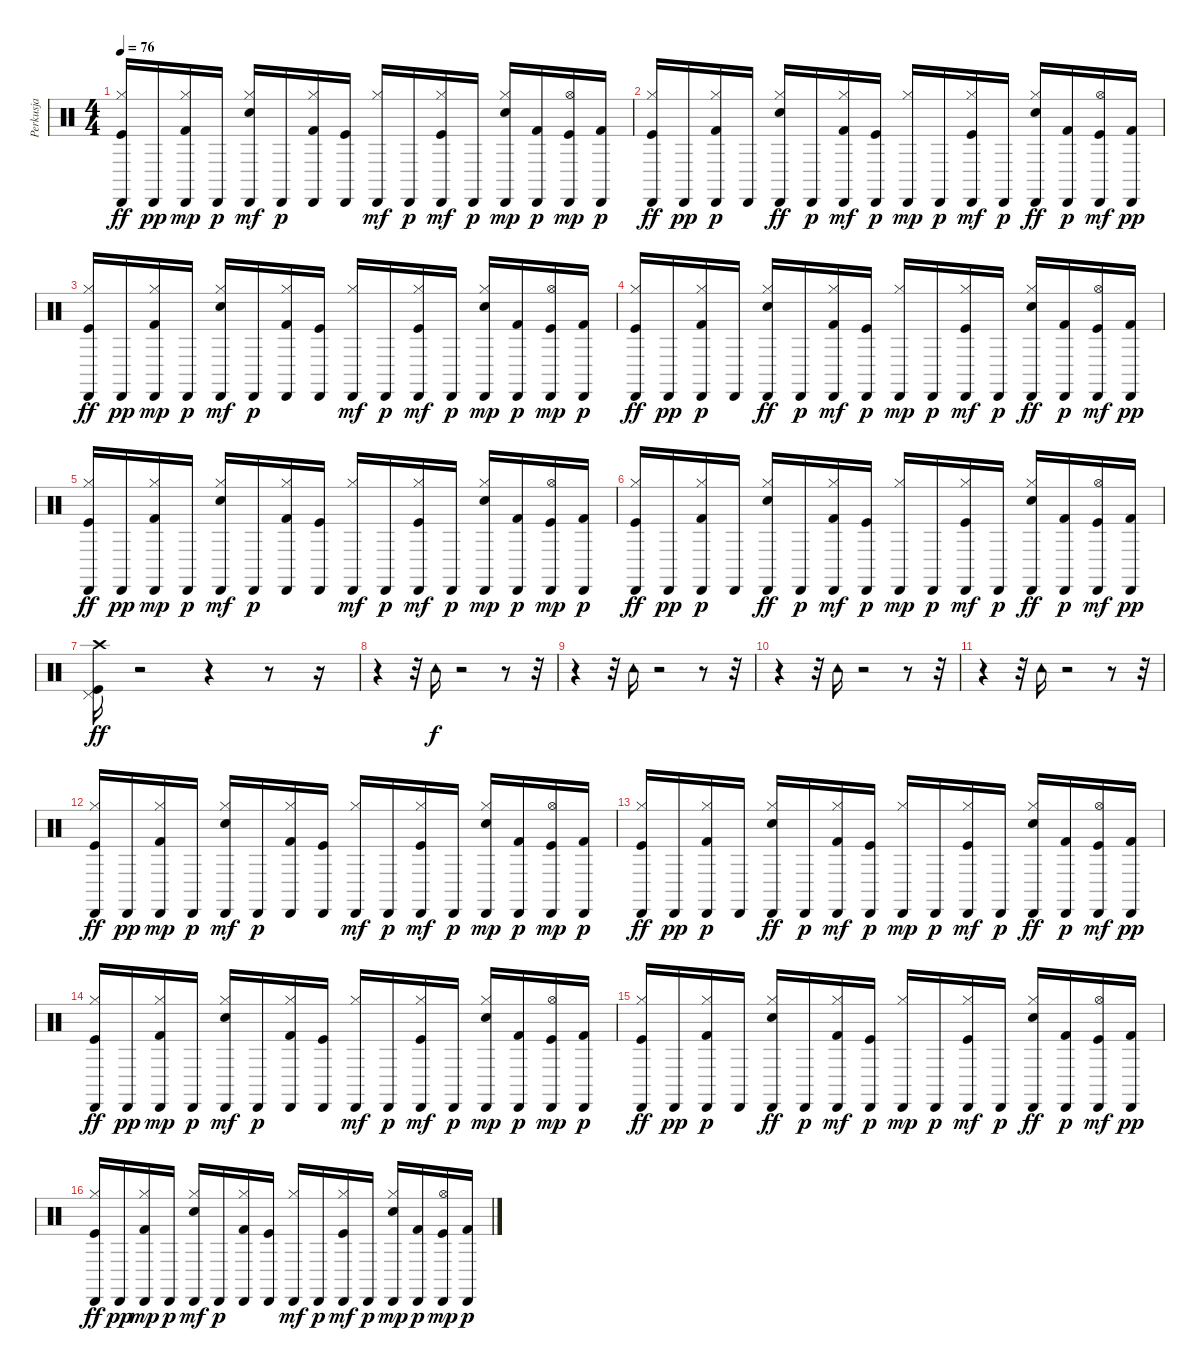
\track ("Perkusja" "Perkusja") {instrument percussion}
\staff {score}
\articulation defaults
\ts (4 4)
\tempo 76
\clef neutral
\ks c
("Cabasa (hit)" "Hi-Hat (closed)" "Kick (hit)").16{dy ff} "Cabasa (hit)".16{dy pp} ("Cabasa (hit)" "Kick (hit) 2" "Hi-Hat (closed)").16{dy mp} "Cabasa (hit)".16{dy p} ("Cabasa (hit)" "Snare (hit) 2" "Hi-Hat (closed)").16{dy mf} "Cabasa (hit)".16{dy p} ("Cabasa (hit)" "Hi-Hat (closed)" "Kick (hit) 2").16 ("Cabasa (hit)" "Kick (hit)").16 ("Cabasa (hit)" "Hi-Hat (closed)").16{dy mf} "Cabasa (hit)".16{dy p} ("Cabasa (hit)" "Hi-Hat (closed)" "Kick (hit)").16{dy mf} "Cabasa (hit)".16{dy p} ("Cabasa (hit)" "Hi-Hat (closed)" "Snare (hit) 2").16{dy mp} ("Cabasa (hit)" "Kick (hit) 2").16{dy p} ("Kick (hit)" "Hi-Hat (open)" "Cabasa (hit)").16{dy mp} ("Cabasa (hit)" "Kick (hit) 2").16{dy p} |
("Cabasa (hit)" "Hi-Hat (closed)" "Kick (hit)").16{dy ff} "Cabasa (hit)".16{dy pp} ("Cabasa (hit)" "Hi-Hat (closed)" "Kick (hit) 2").16{dy p} "Cabasa (hit)".16 ("Cabasa (hit)" "Hi-Hat (closed)" "Snare (hit) 2").16{dy ff} "Cabasa (hit)".16{dy p} ("Cabasa (hit)" "Kick (hit) 2" "Hi-Hat (closed)").16{dy mf} ("Cabasa (hit)" "Kick (hit)").16{dy p} ("Cabasa (hit)" "Hi-Hat (closed)").16{dy mp} "Cabasa (hit)".16{dy p} ("Cabasa (hit)" "Hi-Hat (closed)" "Kick (hit)").16{dy mf} "Cabasa (hit)".16{dy p} ("Cabasa (hit)" "Hi-Hat (closed)" "Snare (hit) 2").16{dy ff} ("Cabasa (hit)" "Kick (hit) 2").16{dy p} ("Cabasa (hit)" "Kick (hit)" "Hi-Hat (open)").16{dy mf} ("Cabasa (hit)" "Kick (hit) 2").16{dy pp} |
("Cabasa (hit)" "Hi-Hat (closed)" "Kick (hit)").16{dy ff} "Cabasa (hit)".16{dy pp} ("Cabasa (hit)" "Kick (hit) 2" "Hi-Hat (closed)").16{dy mp} "Cabasa (hit)".16{dy p} ("Cabasa (hit)" "Snare (hit) 2" "Hi-Hat (closed)").16{dy mf} "Cabasa (hit)".16{dy p} ("Cabasa (hit)" "Hi-Hat (closed)" "Kick (hit) 2").16 ("Cabasa (hit)" "Kick (hit)").16 ("Cabasa (hit)" "Hi-Hat (closed)").16{dy mf} "Cabasa (hit)".16{dy p} ("Cabasa (hit)" "Hi-Hat (closed)" "Kick (hit)").16{dy mf} "Cabasa (hit)".16{dy p} ("Cabasa (hit)" "Hi-Hat (closed)" "Snare (hit) 2").16{dy mp} ("Cabasa (hit)" "Kick (hit) 2").16{dy p} ("Kick (hit)" "Hi-Hat (open)" "Cabasa (hit)").16{dy mp} ("Cabasa (hit)" "Kick (hit) 2").16{dy p} |
("Cabasa (hit)" "Hi-Hat (closed)" "Kick (hit)").16{dy ff} "Cabasa (hit)".16{dy pp} ("Cabasa (hit)" "Hi-Hat (closed)" "Kick (hit) 2").16{dy p} "Cabasa (hit)".16 ("Cabasa (hit)" "Hi-Hat (closed)" "Snare (hit) 2").16{dy ff} "Cabasa (hit)".16{dy p} ("Cabasa (hit)" "Kick (hit) 2" "Hi-Hat (closed)").16{dy mf} ("Cabasa (hit)" "Kick (hit)").16{dy p} ("Cabasa (hit)" "Hi-Hat (closed)").16{dy mp} "Cabasa (hit)".16{dy p} ("Cabasa (hit)" "Hi-Hat (closed)" "Kick (hit)").16{dy mf} "Cabasa (hit)".16{dy p} ("Cabasa (hit)" "Hi-Hat (closed)" "Snare (hit) 2").16{dy ff} ("Cabasa (hit)" "Kick (hit) 2").16{dy p} ("Cabasa (hit)" "Kick (hit)" "Hi-Hat (open)").16{dy mf} ("Cabasa (hit)" "Kick (hit) 2").16{dy pp} |
("Cabasa (hit)" "Hi-Hat (closed)" "Kick (hit)").16{dy ff} "Cabasa (hit)".16{dy pp} ("Cabasa (hit)" "Kick (hit) 2" "Hi-Hat (closed)").16{dy mp} "Cabasa (hit)".16{dy p} ("Cabasa (hit)" "Snare (hit) 2" "Hi-Hat (closed)").16{dy mf} "Cabasa (hit)".16{dy p} ("Cabasa (hit)" "Hi-Hat (closed)" "Kick (hit) 2").16 ("Cabasa (hit)" "Kick (hit)").16 ("Cabasa (hit)" "Hi-Hat (closed)").16{dy mf} "Cabasa (hit)".16{dy p} ("Cabasa (hit)" "Hi-Hat (closed)" "Kick (hit)").16{dy mf} "Cabasa (hit)".16{dy p} ("Cabasa (hit)" "Hi-Hat (closed)" "Snare (hit) 2").16{dy mp} ("Cabasa (hit)" "Kick (hit) 2").16{dy p} ("Kick (hit)" "Hi-Hat (open)" "Cabasa (hit)").16{dy mp} ("Cabasa (hit)" "Kick (hit) 2").16{dy p} |
("Cabasa (hit)" "Hi-Hat (closed)" "Kick (hit)").16{dy ff} "Cabasa (hit)".16{dy pp} ("Cabasa (hit)" "Hi-Hat (closed)" "Kick (hit) 2").16{dy p} "Cabasa (hit)".16 ("Cabasa (hit)" "Hi-Hat (closed)" "Snare (hit) 2").16{dy ff} "Cabasa (hit)".16{dy p} ("Cabasa (hit)" "Kick (hit) 2" "Hi-Hat (closed)").16{dy mf} ("Cabasa (hit)" "Kick (hit)").16{dy p} ("Cabasa (hit)" "Hi-Hat (closed)").16{dy mp} "Cabasa (hit)".16{dy p} ("Cabasa (hit)" "Hi-Hat (closed)" "Kick (hit)").16{dy mf} "Cabasa (hit)".16{dy p} ("Cabasa (hit)" "Hi-Hat (closed)" "Snare (hit) 2").16{dy ff} ("Cabasa (hit)" "Kick (hit) 2").16{dy p} ("Cabasa (hit)" "Kick (hit)" "Hi-Hat (open)").16{dy mf} ("Cabasa (hit)" "Kick (hit) 2").16{dy pp} |
("Kick (hit)" "Pedal Hi-Hat (hit)" "Crash high (hit)").16{dy ff} r.2 r.4 r.8 r.16 |
r.4 r.32 "Tambourine (hit)".16{dy f} r.2 r.8 r.32 |
r.4 r.32 "Tambourine (hit)".16 r.2 r.8 r.32 |
r.4 r.32 "Tambourine (hit)".16 r.2 r.8 r.32 |
r.4 r.32 "Tambourine (hit)".16 r.2 r.8 r.32 |
("Cabasa (hit)" "Hi-Hat (closed)" "Kick (hit)").16{dy ff} "Cabasa (hit)".16{dy pp} ("Cabasa (hit)" "Kick (hit) 2" "Hi-Hat (closed)").16{dy mp} "Cabasa (hit)".16{dy p} ("Cabasa (hit)" "Snare (hit) 2" "Hi-Hat (closed)").16{dy mf} "Cabasa (hit)".16{dy p} ("Cabasa (hit)" "Hi-Hat (closed)" "Kick (hit) 2").16 ("Cabasa (hit)" "Kick (hit)").16 ("Cabasa (hit)" "Hi-Hat (closed)").16{dy mf} "Cabasa (hit)".16{dy p} ("Cabasa (hit)" "Hi-Hat (closed)" "Kick (hit)").16{dy mf} "Cabasa (hit)".16{dy p} ("Cabasa (hit)" "Hi-Hat (closed)" "Snare (hit) 2").16{dy mp} ("Cabasa (hit)" "Kick (hit) 2").16{dy p} ("Kick (hit)" "Hi-Hat (open)" "Cabasa (hit)").16{dy mp} ("Cabasa (hit)" "Kick (hit) 2").16{dy p} |
("Cabasa (hit)" "Hi-Hat (closed)" "Kick (hit)").16{dy ff} "Cabasa (hit)".16{dy pp} ("Cabasa (hit)" "Hi-Hat (closed)" "Kick (hit) 2").16{dy p} "Cabasa (hit)".16 ("Cabasa (hit)" "Hi-Hat (closed)" "Snare (hit) 2").16{dy ff} "Cabasa (hit)".16{dy p} ("Cabasa (hit)" "Kick (hit) 2" "Hi-Hat (closed)").16{dy mf} ("Cabasa (hit)" "Kick (hit)").16{dy p} ("Cabasa (hit)" "Hi-Hat (closed)").16{dy mp} "Cabasa (hit)".16{dy p} ("Cabasa (hit)" "Hi-Hat (closed)" "Kick (hit)").16{dy mf} "Cabasa (hit)".16{dy p} ("Cabasa (hit)" "Hi-Hat (closed)" "Snare (hit) 2").16{dy ff} ("Cabasa (hit)" "Kick (hit) 2").16{dy p} ("Cabasa (hit)" "Kick (hit)" "Hi-Hat (open)").16{dy mf} ("Cabasa (hit)" "Kick (hit) 2").16{dy pp} |
("Cabasa (hit)" "Hi-Hat (closed)" "Kick (hit)").16{dy ff} "Cabasa (hit)".16{dy pp} ("Cabasa (hit)" "Kick (hit) 2" "Hi-Hat (closed)").16{dy mp} "Cabasa (hit)".16{dy p} ("Cabasa (hit)" "Snare (hit) 2" "Hi-Hat (closed)").16{dy mf} "Cabasa (hit)".16{dy p} ("Cabasa (hit)" "Hi-Hat (closed)" "Kick (hit) 2").16 ("Cabasa (hit)" "Kick (hit)").16 ("Cabasa (hit)" "Hi-Hat (closed)").16{dy mf} "Cabasa (hit)".16{dy p} ("Cabasa (hit)" "Hi-Hat (closed)" "Kick (hit)").16{dy mf} "Cabasa (hit)".16{dy p} ("Cabasa (hit)" "Hi-Hat (closed)" "Snare (hit) 2").16{dy mp} ("Cabasa (hit)" "Kick (hit) 2").16{dy p} ("Kick (hit)" "Hi-Hat (open)" "Cabasa (hit)").16{dy mp} ("Cabasa (hit)" "Kick (hit) 2").16{dy p} |
("Cabasa (hit)" "Hi-Hat (closed)" "Kick (hit)").16{dy ff} "Cabasa (hit)".16{dy pp} ("Cabasa (hit)" "Hi-Hat (closed)" "Kick (hit) 2").16{dy p} "Cabasa (hit)".16 ("Cabasa (hit)" "Hi-Hat (closed)" "Snare (hit) 2").16{dy ff} "Cabasa (hit)".16{dy p} ("Cabasa (hit)" "Kick (hit) 2" "Hi-Hat (closed)").16{dy mf} ("Cabasa (hit)" "Kick (hit)").16{dy p} ("Cabasa (hit)" "Hi-Hat (closed)").16{dy mp} "Cabasa (hit)".16{dy p} ("Cabasa (hit)" "Hi-Hat (closed)" "Kick (hit)").16{dy mf} "Cabasa (hit)".16{dy p} ("Cabasa (hit)" "Hi-Hat (closed)" "Snare (hit) 2").16{dy ff} ("Cabasa (hit)" "Kick (hit) 2").16{dy p} ("Cabasa (hit)" "Kick (hit)" "Hi-Hat (open)").16{dy mf} ("Cabasa (hit)" "Kick (hit) 2").16{dy pp} |
("Cabasa (hit)" "Hi-Hat (closed)" "Kick (hit)").16{dy ff} "Cabasa (hit)".16{dy pp} ("Cabasa (hit)" "Kick (hit) 2" "Hi-Hat (closed)").16{dy mp} "Cabasa (hit)".16{dy p} ("Cabasa (hit)" "Snare (hit) 2" "Hi-Hat (closed)").16{dy mf} "Cabasa (hit)".16{dy p} ("Cabasa (hit)" "Hi-Hat (closed)" "Kick (hit) 2").16 ("Cabasa (hit)" "Kick (hit)").16 ("Cabasa (hit)" "Hi-Hat (closed)").16{dy mf} "Cabasa (hit)".16{dy p} ("Cabasa (hit)" "Hi-Hat (closed)" "Kick (hit)").16{dy mf} "Cabasa (hit)".16{dy p} ("Cabasa (hit)" "Hi-Hat (closed)" "Snare (hit) 2").16{dy mp} ("Cabasa (hit)" "Kick (hit) 2").16{dy p} ("Kick (hit)" "Hi-Hat (open)" "Cabasa (hit)").16{dy mp} ("Cabasa (hit)" "Kick (hit) 2").16{dy p}
